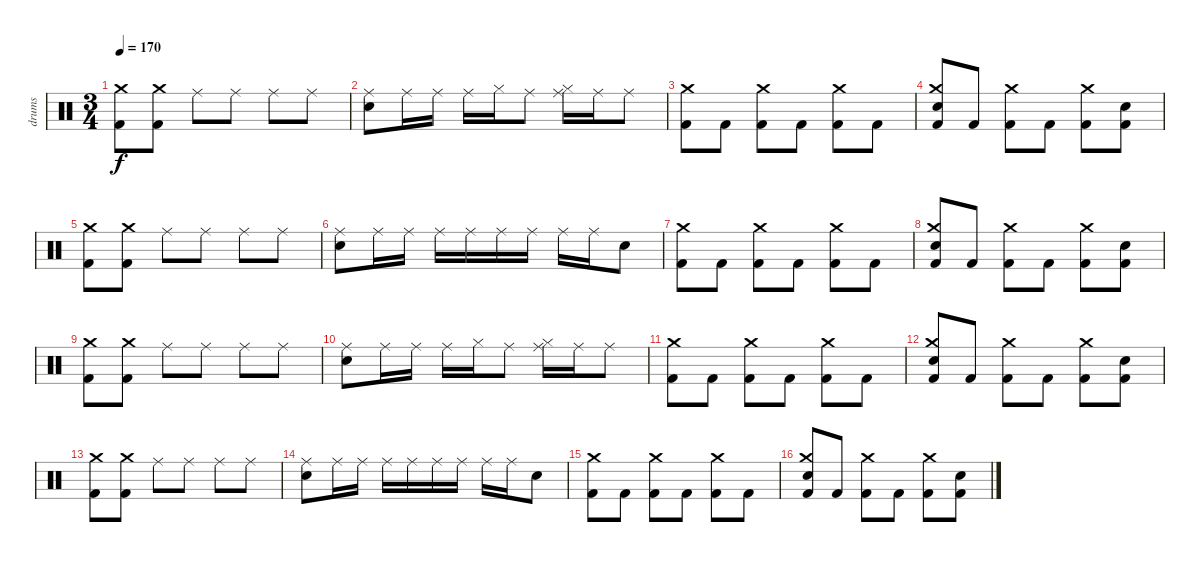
\track ("drums" "drums") {instrument percussion}
\staff {score}
\articulation defaults
\ts (3 4)
\tempo 170
\clef neutral
\ks c
("Kick (hit) 2" "Crash medium (hit)").8{dy f} ("Kick (hit) 2" "Crash medium (hit)").8 "Ride (middle)".8 "Ride (middle)".8 "Ride (middle)".8 "Ride (middle)".8 |
("Snare (hit) 2" "Ride (middle)").8 "Ride (middle)".16 "Ride (middle)".16 "Ride (middle)".16 "Hi-Hat (closed)".16 "Ride (middle)".8 ("Ride (middle)" "Hi-Hat (closed)").16 "Ride (middle)".16 "Ride (middle)".8 |
("Kick (hit) 2" "Crash medium (hit)").8 "Kick (hit) 2".8 ("Kick (hit) 2" "Crash medium (hit)").8 "Kick (hit) 2".8 ("Kick (hit) 2" "Crash medium (hit)").8 "Kick (hit) 2".8 |
("Kick (hit) 2" "Snare (hit) 2" "Crash medium (hit)").8 "Kick (hit) 2".8 ("Kick (hit) 2" "Crash medium (hit)").8 "Kick (hit) 2".8 ("Kick (hit) 2" "Crash medium (hit)").8 ("Kick (hit) 2" "Snare (hit) 2").8 |
("Kick (hit) 2" "Crash medium (hit)").8 ("Kick (hit) 2" "Crash medium (hit)").8 "Ride (middle)".8 "Ride (middle)".8 "Ride (middle)".8 "Ride (middle)".8 |
("Snare (hit) 2" "Ride (middle)").8 "Ride (middle)".16 "Ride (middle)".16 "Ride (middle)".16 "Ride (middle)".16 "Ride (middle)".16 "Ride (middle)".16 "Ride (middle)".16 "Ride (middle)".16 "Snare (hit) 2".8 |
("Kick (hit) 2" "Crash medium (hit)").8 "Kick (hit) 2".8 ("Kick (hit) 2" "Crash medium (hit)").8 "Kick (hit) 2".8 ("Kick (hit) 2" "Crash medium (hit)").8 "Kick (hit) 2".8 |
("Kick (hit) 2" "Snare (hit) 2" "Crash medium (hit)").8 "Kick (hit) 2".8 ("Kick (hit) 2" "Crash medium (hit)").8 "Kick (hit) 2".8 ("Kick (hit) 2" "Crash medium (hit)").8 ("Kick (hit) 2" "Snare (hit) 2").8 |
("Kick (hit) 2" "Crash medium (hit)").8 ("Kick (hit) 2" "Crash medium (hit)").8 "Ride (middle)".8 "Ride (middle)".8 "Ride (middle)".8 "Ride (middle)".8 |
("Snare (hit) 2" "Ride (middle)").8 "Ride (middle)".16 "Ride (middle)".16 "Ride (middle)".16 "Hi-Hat (closed)".16 "Ride (middle)".8 ("Ride (middle)" "Hi-Hat (closed)").16 "Ride (middle)".16 "Ride (middle)".8 |
("Kick (hit) 2" "Crash medium (hit)").8 "Kick (hit) 2".8 ("Kick (hit) 2" "Crash medium (hit)").8 "Kick (hit) 2".8 ("Kick (hit) 2" "Crash medium (hit)").8 "Kick (hit) 2".8 |
("Kick (hit) 2" "Snare (hit) 2" "Crash medium (hit)").8 "Kick (hit) 2".8 ("Kick (hit) 2" "Crash medium (hit)").8 "Kick (hit) 2".8 ("Kick (hit) 2" "Crash medium (hit)").8 ("Kick (hit) 2" "Snare (hit) 2").8 |
("Kick (hit) 2" "Crash medium (hit)").8 ("Kick (hit) 2" "Crash medium (hit)").8 "Ride (middle)".8 "Ride (middle)".8 "Ride (middle)".8 "Ride (middle)".8 |
("Snare (hit) 2" "Ride (middle)").8 "Ride (middle)".16 "Ride (middle)".16 "Ride (middle)".16 "Ride (middle)".16 "Ride (middle)".16 "Ride (middle)".16 "Ride (middle)".16 "Ride (middle)".16 "Snare (hit) 2".8 |
("Kick (hit) 2" "Crash medium (hit)").8 "Kick (hit) 2".8 ("Kick (hit) 2" "Crash medium (hit)").8 "Kick (hit) 2".8 ("Kick (hit) 2" "Crash medium (hit)").8 "Kick (hit) 2".8 |
("Kick (hit) 2" "Snare (hit) 2" "Crash medium (hit)").8 "Kick (hit) 2".8 ("Kick (hit) 2" "Crash medium (hit)").8 "Kick (hit) 2".8 ("Kick (hit) 2" "Crash medium (hit)").8 ("Kick (hit) 2" "Snare (hit) 2").8
